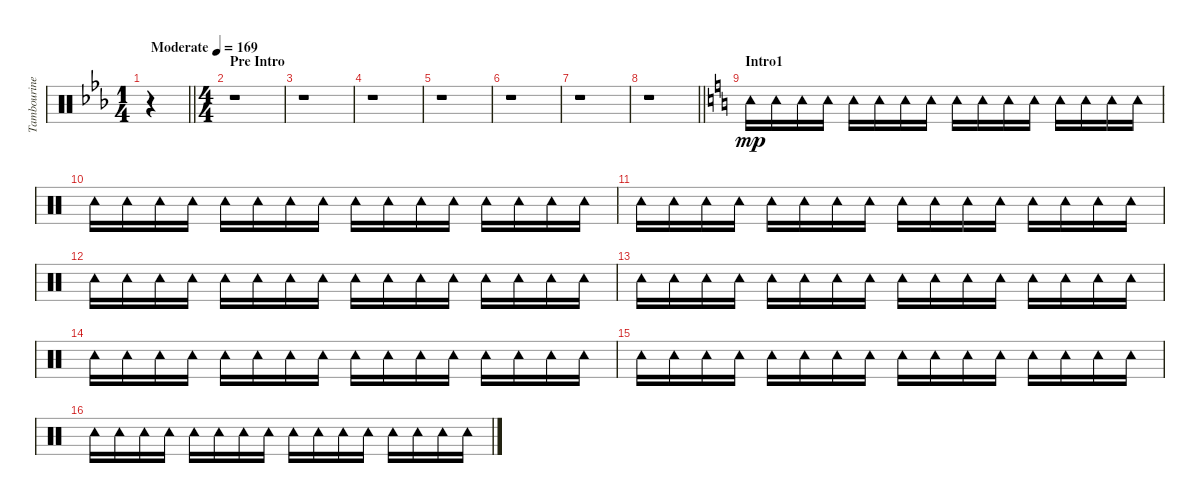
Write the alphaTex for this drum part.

\track ("Tambourine" "Tambourine") {instrument percussion}
\staff {score}
\articulation defaults
\ts (1 4)
\tempo (169 "Moderate")
\clef neutral
\barLineRight lightlight
\ks eb
r.4{dy mp} |
\ts (4 4)
\section ("" "Pre Intro")
r.1 |
r.1 |
r.1 |
r.1 |
r.1 |
r.1 |
\barLineRight lightlight
r.1 |
\section ("" "Intro1")
\ks c "Tambourine (hit)".16 "Tambourine (hit)".16 "Tambourine (hit)".16 "Tambourine (hit)".16 "Tambourine (hit)".16 "Tambourine (hit)".16 "Tambourine (hit)".16 "Tambourine (hit)".16 "Tambourine (hit)".16 "Tambourine (hit)".16 "Tambourine (hit)".16 "Tambourine (hit)".16 "Tambourine (hit)".16 "Tambourine (hit)".16 "Tambourine (hit)".16 "Tambourine (hit)".16
|
"Tambourine (hit)".16 "Tambourine (hit)".16 "Tambourine (hit)".16 "Tambourine (hit)".16 "Tambourine (hit)".16 "Tambourine (hit)".16 "Tambourine (hit)".16 "Tambourine (hit)".16 "Tambourine (hit)".16 "Tambourine (hit)".16 "Tambourine (hit)".16 "Tambourine (hit)".16 "Tambourine (hit)".16 "Tambourine (hit)".16 "Tambourine (hit)".16 "Tambourine (hit)".16 |
"Tambourine (hit)".16 "Tambourine (hit)".16 "Tambourine (hit)".16 "Tambourine (hit)".16 "Tambourine (hit)".16 "Tambourine (hit)".16 "Tambourine (hit)".16 "Tambourine (hit)".16 "Tambourine (hit)".16 "Tambourine (hit)".16 "Tambourine (hit)".16 "Tambourine (hit)".16 "Tambourine (hit)".16 "Tambourine (hit)".16 "Tambourine (hit)".16 "Tambourine (hit)".16 |
"Tambourine (hit)".16 "Tambourine (hit)".16 "Tambourine (hit)".16 "Tambourine (hit)".16 "Tambourine (hit)".16 "Tambourine (hit)".16 "Tambourine (hit)".16 "Tambourine (hit)".16 "Tambourine (hit)".16 "Tambourine (hit)".16 "Tambourine (hit)".16 "Tambourine (hit)".16 "Tambourine (hit)".16 "Tambourine (hit)".16 "Tambourine (hit)".16 "Tambourine (hit)".16 |
"Tambourine (hit)".16 "Tambourine (hit)".16 "Tambourine (hit)".16 "Tambourine (hit)".16 "Tambourine (hit)".16 "Tambourine (hit)".16 "Tambourine (hit)".16 "Tambourine (hit)".16 "Tambourine (hit)".16 "Tambourine (hit)".16 "Tambourine (hit)".16 "Tambourine (hit)".16 "Tambourine (hit)".16 "Tambourine (hit)".16 "Tambourine (hit)".16 "Tambourine (hit)".16 |
"Tambourine (hit)".16 "Tambourine (hit)".16 "Tambourine (hit)".16 "Tambourine (hit)".16 "Tambourine (hit)".16 "Tambourine (hit)".16 "Tambourine (hit)".16 "Tambourine (hit)".16 "Tambourine (hit)".16 "Tambourine (hit)".16 "Tambourine (hit)".16 "Tambourine (hit)".16 "Tambourine (hit)".16 "Tambourine (hit)".16 "Tambourine (hit)".16 "Tambourine (hit)".16 |
"Tambourine (hit)".16 "Tambourine (hit)".16 "Tambourine (hit)".16 "Tambourine (hit)".16 "Tambourine (hit)".16 "Tambourine (hit)".16 "Tambourine (hit)".16 "Tambourine (hit)".16 "Tambourine (hit)".16 "Tambourine (hit)".16 "Tambourine (hit)".16 "Tambourine (hit)".16 "Tambourine (hit)".16 "Tambourine (hit)".16 "Tambourine (hit)".16 "Tambourine (hit)".16 |
"Tambourine (hit)".16 "Tambourine (hit)".16 "Tambourine (hit)".16 "Tambourine (hit)".16 "Tambourine (hit)".16 "Tambourine (hit)".16 "Tambourine (hit)".16 "Tambourine (hit)".16 "Tambourine (hit)".16 "Tambourine (hit)".16 "Tambourine (hit)".16 "Tambourine (hit)".16 "Tambourine (hit)".16 "Tambourine (hit)".16 "Tambourine (hit)".16 "Tambourine (hit)".16
